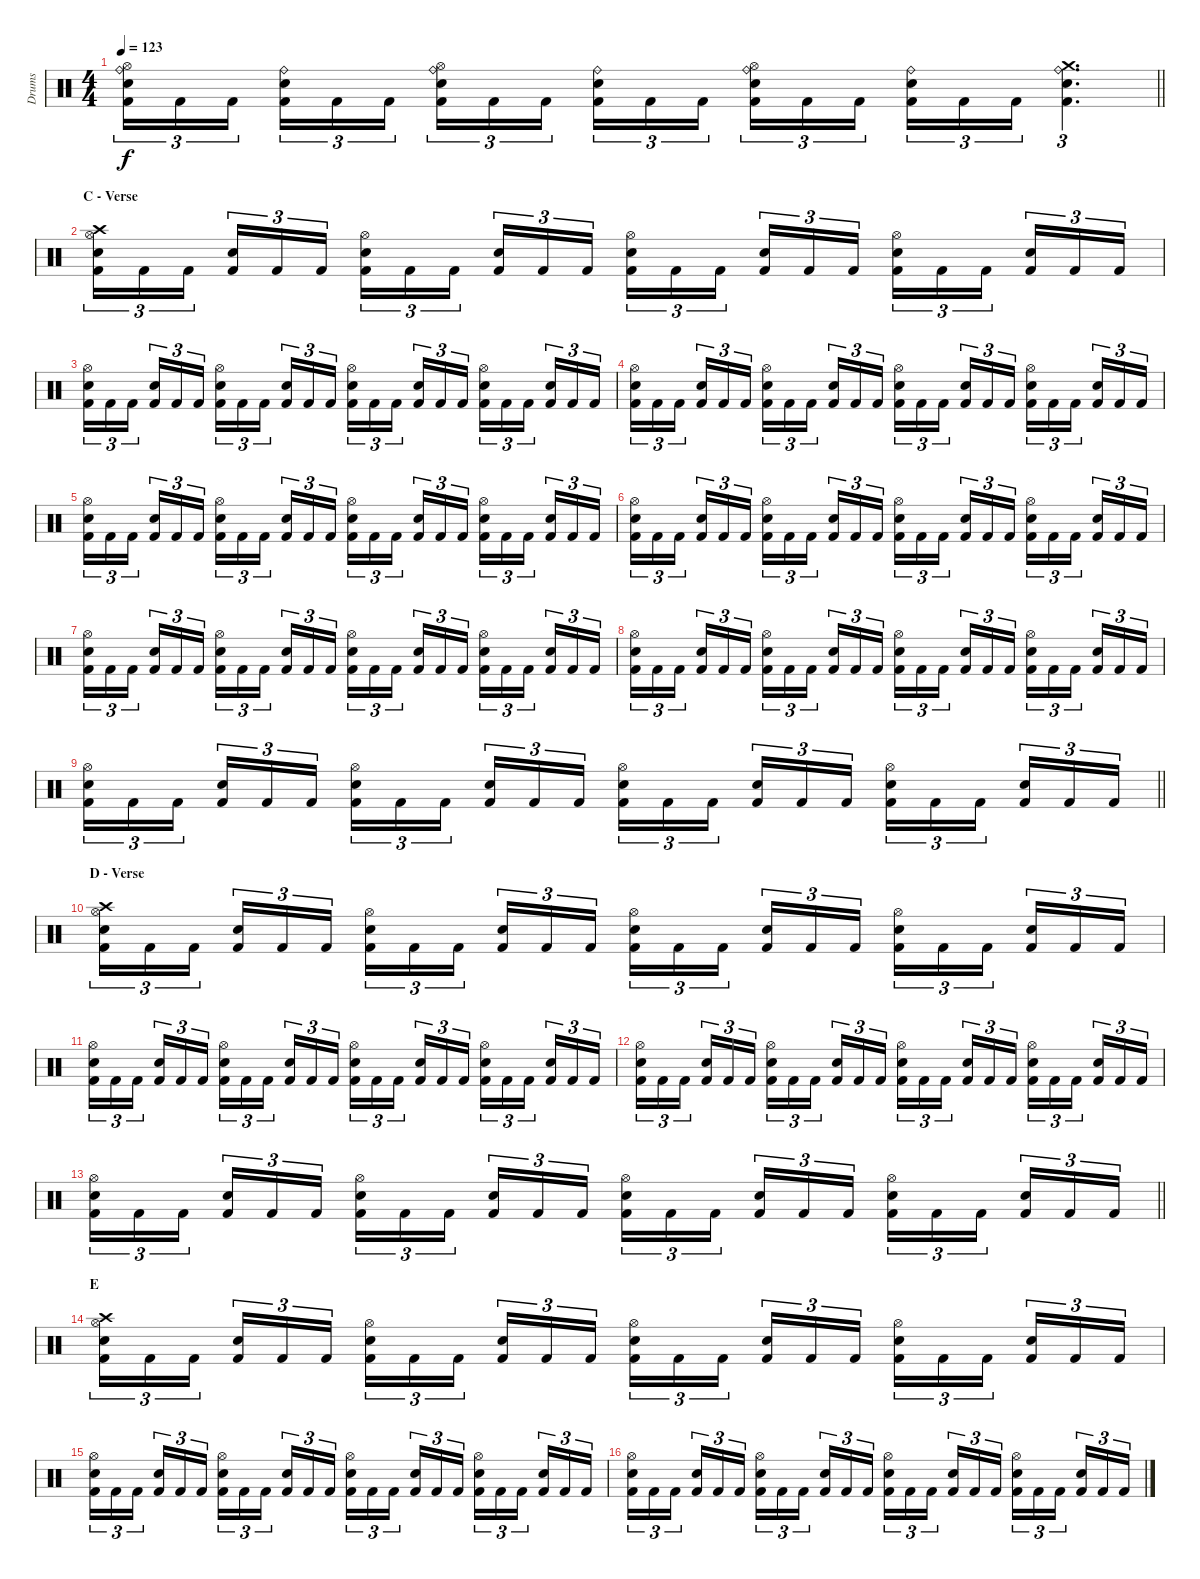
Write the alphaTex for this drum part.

\track ("Drums" "Drums") {instrument percussion}
\staff {score}
\articulation defaults
\ts (4 4)
\tempo 123
\clef neutral
\barLineRight lightlight
\ks c
("Hi-Hat (open)" "Ride (bell)" "Snare (hit) 2" "Kick (hit) 2").16{tu (3 2) dy f} "Kick (hit) 2".16{tu (3 2)} "Kick (hit) 2".16{tu (3 2) beam splitsecondary} ("Ride (bell)" "Snare (hit) 2" "Kick (hit) 2").16{tu (3 2)} "Kick (hit) 2".16{tu (3 2)} "Kick (hit) 2".16{tu (3 2)} ("Hi-Hat (open)" "Ride (bell)" "Snare (hit) 2" "Kick (hit) 2").16{tu (3 2)} "Kick (hit) 2".16{tu (3 2)} "Kick (hit) 2".16{tu (3 2) beam splitsecondary} ("Ride (bell)" "Snare (hit) 2" "Kick (hit) 2").16{tu (3 2)} "Kick (hit) 2".16{tu (3 2)} "Kick (hit) 2".16{tu (3 2)} ("Hi-Hat (open)" "Ride (bell)" "Snare (hit) 2" "Kick (hit) 2").16{tu (3 2)} "Kick (hit) 2".16{tu (3 2)} "Kick (hit) 2".16{tu (3 2) beam splitsecondary} ("Ride (bell)" "Snare (hit) 2" "Kick (hit) 2").16{tu (3 2)} "Kick (hit) 2".16{tu (3 2)} "Kick (hit) 2".16{tu (3 2)} ("Crash medium (hit)" "Ride (bell)" "Snare (hit) 2" "Kick (hit) 2").4{d tu (3 2)} |
\section ("" "C - Verse")
("Crash high (hit)" "Hi-Hat (open)" "Snare (hit) 2" "Kick (hit) 2").16{tu (3 2)} "Kick (hit) 2".16{tu (3 2)} "Kick (hit) 2".16{tu (3 2) beam splitsecondary} ("Snare (hit) 2" "Kick (hit) 2").16{tu (3 2)} "Kick (hit) 2".16{tu (3 2)} "Kick (hit) 2".16{tu (3 2)} ("Hi-Hat (open)" "Snare (hit) 2" "Kick (hit) 2").16{tu (3 2)} "Kick (hit) 2".16{tu (3 2)} "Kick (hit) 2".16{tu (3 2) beam splitsecondary} ("Snare (hit) 2" "Kick (hit) 2").16{tu (3 2)} "Kick (hit) 2".16{tu (3 2)} "Kick (hit) 2".16{tu (3 2)} ("Hi-Hat (open)" "Snare (hit) 2" "Kick (hit) 2").16{tu (3 2)} "Kick (hit) 2".16{tu (3 2)} "Kick (hit) 2".16{tu (3 2) beam splitsecondary} ("Snare (hit) 2" "Kick (hit) 2").16{tu (3 2)} "Kick (hit) 2".16{tu (3 2)} "Kick (hit) 2".16{tu (3 2)} ("Hi-Hat (open)" "Snare (hit) 2" "Kick (hit) 2").16{tu (3 2)} "Kick (hit) 2".16{tu (3 2)} "Kick (hit) 2".16{tu (3 2) beam splitsecondary} ("Snare (hit) 2" "Kick (hit) 2").16{tu (3 2)} "Kick (hit) 2".16{tu (3 2)} "Kick (hit) 2".16{tu (3 2)} |
("Hi-Hat (open)" "Snare (hit) 2" "Kick (hit) 2").16{tu (3 2)} "Kick (hit) 2".16{tu (3 2)} "Kick (hit) 2".16{tu (3 2) beam splitsecondary} ("Snare (hit) 2" "Kick (hit) 2").16{tu (3 2)} "Kick (hit) 2".16{tu (3 2)} "Kick (hit) 2".16{tu (3 2)} ("Hi-Hat (open)" "Snare (hit) 2" "Kick (hit) 2").16{tu (3 2)} "Kick (hit) 2".16{tu (3 2)} "Kick (hit) 2".16{tu (3 2) beam splitsecondary} ("Snare (hit) 2" "Kick (hit) 2").16{tu (3 2)} "Kick (hit) 2".16{tu (3 2)} "Kick (hit) 2".16{tu (3 2)} ("Hi-Hat (open)" "Snare (hit) 2" "Kick (hit) 2").16{tu (3 2)} "Kick (hit) 2".16{tu (3 2)} "Kick (hit) 2".16{tu (3 2) beam splitsecondary} ("Snare (hit) 2" "Kick (hit) 2").16{tu (3 2)} "Kick (hit) 2".16{tu (3 2)} "Kick (hit) 2".16{tu (3 2)} ("Hi-Hat (open)" "Snare (hit) 2" "Kick (hit) 2").16{tu (3 2)} "Kick (hit) 2".16{tu (3 2)} "Kick (hit) 2".16{tu (3 2) beam splitsecondary} ("Snare (hit) 2" "Kick (hit) 2").16{tu (3 2)} "Kick (hit) 2".16{tu (3 2)} "Kick (hit) 2".16{tu (3 2)} |
("Hi-Hat (open)" "Snare (hit) 2" "Kick (hit) 2").16{tu (3 2)} "Kick (hit) 2".16{tu (3 2)} "Kick (hit) 2".16{tu (3 2) beam splitsecondary} ("Snare (hit) 2" "Kick (hit) 2").16{tu (3 2)} "Kick (hit) 2".16{tu (3 2)} "Kick (hit) 2".16{tu (3 2)} ("Hi-Hat (open)" "Snare (hit) 2" "Kick (hit) 2").16{tu (3 2)} "Kick (hit) 2".16{tu (3 2)} "Kick (hit) 2".16{tu (3 2) beam splitsecondary} ("Snare (hit) 2" "Kick (hit) 2").16{tu (3 2)} "Kick (hit) 2".16{tu (3 2)} "Kick (hit) 2".16{tu (3 2)} ("Hi-Hat (open)" "Snare (hit) 2" "Kick (hit) 2").16{tu (3 2)} "Kick (hit) 2".16{tu (3 2)} "Kick (hit) 2".16{tu (3 2) beam splitsecondary} ("Snare (hit) 2" "Kick (hit) 2").16{tu (3 2)} "Kick (hit) 2".16{tu (3 2)} "Kick (hit) 2".16{tu (3 2)} ("Hi-Hat (open)" "Snare (hit) 2" "Kick (hit) 2").16{tu (3 2)} "Kick (hit) 2".16{tu (3 2)} "Kick (hit) 2".16{tu (3 2) beam splitsecondary} ("Snare (hit) 2" "Kick (hit) 2").16{tu (3 2)} "Kick (hit) 2".16{tu (3 2)} "Kick (hit) 2".16{tu (3 2)} |
("Hi-Hat (open)" "Snare (hit) 2" "Kick (hit) 2").16{tu (3 2)} "Kick (hit) 2".16{tu (3 2)} "Kick (hit) 2".16{tu (3 2) beam splitsecondary} ("Snare (hit) 2" "Kick (hit) 2").16{tu (3 2)} "Kick (hit) 2".16{tu (3 2)} "Kick (hit) 2".16{tu (3 2)} ("Hi-Hat (open)" "Snare (hit) 2" "Kick (hit) 2").16{tu (3 2)} "Kick (hit) 2".16{tu (3 2)} "Kick (hit) 2".16{tu (3 2) beam splitsecondary} ("Snare (hit) 2" "Kick (hit) 2").16{tu (3 2)} "Kick (hit) 2".16{tu (3 2)} "Kick (hit) 2".16{tu (3 2)} ("Hi-Hat (open)" "Snare (hit) 2" "Kick (hit) 2").16{tu (3 2)} "Kick (hit) 2".16{tu (3 2)} "Kick (hit) 2".16{tu (3 2) beam splitsecondary} ("Snare (hit) 2" "Kick (hit) 2").16{tu (3 2)} "Kick (hit) 2".16{tu (3 2)} "Kick (hit) 2".16{tu (3 2)} ("Hi-Hat (open)" "Snare (hit) 2" "Kick (hit) 2").16{tu (3 2)} "Kick (hit) 2".16{tu (3 2)} "Kick (hit) 2".16{tu (3 2) beam splitsecondary} ("Snare (hit) 2" "Kick (hit) 2").16{tu (3 2)} "Kick (hit) 2".16{tu (3 2)} "Kick (hit) 2".16{tu (3 2)} |
("Hi-Hat (open)" "Snare (hit) 2" "Kick (hit) 2").16{tu (3 2)} "Kick (hit) 2".16{tu (3 2)} "Kick (hit) 2".16{tu (3 2) beam splitsecondary} ("Snare (hit) 2" "Kick (hit) 2").16{tu (3 2)} "Kick (hit) 2".16{tu (3 2)} "Kick (hit) 2".16{tu (3 2)} ("Hi-Hat (open)" "Snare (hit) 2" "Kick (hit) 2").16{tu (3 2)} "Kick (hit) 2".16{tu (3 2)} "Kick (hit) 2".16{tu (3 2) beam splitsecondary} ("Snare (hit) 2" "Kick (hit) 2").16{tu (3 2)} "Kick (hit) 2".16{tu (3 2)} "Kick (hit) 2".16{tu (3 2)} ("Hi-Hat (open)" "Snare (hit) 2" "Kick (hit) 2").16{tu (3 2)} "Kick (hit) 2".16{tu (3 2)} "Kick (hit) 2".16{tu (3 2) beam splitsecondary} ("Snare (hit) 2" "Kick (hit) 2").16{tu (3 2)} "Kick (hit) 2".16{tu (3 2)} "Kick (hit) 2".16{tu (3 2)} ("Hi-Hat (open)" "Snare (hit) 2" "Kick (hit) 2").16{tu (3 2)} "Kick (hit) 2".16{tu (3 2)} "Kick (hit) 2".16{tu (3 2) beam splitsecondary} ("Snare (hit) 2" "Kick (hit) 2").16{tu (3 2)} "Kick (hit) 2".16{tu (3 2)} "Kick (hit) 2".16{tu (3 2)} |
("Hi-Hat (open)" "Snare (hit) 2" "Kick (hit) 2").16{tu (3 2)} "Kick (hit) 2".16{tu (3 2)} "Kick (hit) 2".16{tu (3 2) beam splitsecondary} ("Snare (hit) 2" "Kick (hit) 2").16{tu (3 2)} "Kick (hit) 2".16{tu (3 2)} "Kick (hit) 2".16{tu (3 2)} ("Hi-Hat (open)" "Snare (hit) 2" "Kick (hit) 2").16{tu (3 2)} "Kick (hit) 2".16{tu (3 2)} "Kick (hit) 2".16{tu (3 2) beam splitsecondary} ("Snare (hit) 2" "Kick (hit) 2").16{tu (3 2)} "Kick (hit) 2".16{tu (3 2)} "Kick (hit) 2".16{tu (3 2)} ("Hi-Hat (open)" "Snare (hit) 2" "Kick (hit) 2").16{tu (3 2)} "Kick (hit) 2".16{tu (3 2)} "Kick (hit) 2".16{tu (3 2) beam splitsecondary} ("Snare (hit) 2" "Kick (hit) 2").16{tu (3 2)} "Kick (hit) 2".16{tu (3 2)} "Kick (hit) 2".16{tu (3 2)} ("Hi-Hat (open)" "Snare (hit) 2" "Kick (hit) 2").16{tu (3 2)} "Kick (hit) 2".16{tu (3 2)} "Kick (hit) 2".16{tu (3 2) beam splitsecondary} ("Snare (hit) 2" "Kick (hit) 2").16{tu (3 2)} "Kick (hit) 2".16{tu (3 2)} "Kick (hit) 2".16{tu (3 2)} |
("Hi-Hat (open)" "Snare (hit) 2" "Kick (hit) 2").16{tu (3 2)} "Kick (hit) 2".16{tu (3 2)} "Kick (hit) 2".16{tu (3 2) beam splitsecondary} ("Snare (hit) 2" "Kick (hit) 2").16{tu (3 2)} "Kick (hit) 2".16{tu (3 2)} "Kick (hit) 2".16{tu (3 2)} ("Hi-Hat (open)" "Snare (hit) 2" "Kick (hit) 2").16{tu (3 2)} "Kick (hit) 2".16{tu (3 2)} "Kick (hit) 2".16{tu (3 2) beam splitsecondary} ("Snare (hit) 2" "Kick (hit) 2").16{tu (3 2)} "Kick (hit) 2".16{tu (3 2)} "Kick (hit) 2".16{tu (3 2)} ("Hi-Hat (open)" "Snare (hit) 2" "Kick (hit) 2").16{tu (3 2)} "Kick (hit) 2".16{tu (3 2)} "Kick (hit) 2".16{tu (3 2) beam splitsecondary} ("Snare (hit) 2" "Kick (hit) 2").16{tu (3 2)} "Kick (hit) 2".16{tu (3 2)} "Kick (hit) 2".16{tu (3 2)} ("Hi-Hat (open)" "Snare (hit) 2" "Kick (hit) 2").16{tu (3 2)} "Kick (hit) 2".16{tu (3 2)} "Kick (hit) 2".16{tu (3 2) beam splitsecondary} ("Snare (hit) 2" "Kick (hit) 2").16{tu (3 2)} "Kick (hit) 2".16{tu (3 2)} "Kick (hit) 2".16{tu (3 2)} |
\barLineRight lightlight
("Hi-Hat (open)" "Snare (hit) 2" "Kick (hit) 2").16{tu (3 2)} "Kick (hit) 2".16{tu (3 2)} "Kick (hit) 2".16{tu (3 2) beam splitsecondary} ("Snare (hit) 2" "Kick (hit) 2").16{tu (3 2)} "Kick (hit) 2".16{tu (3 2)} "Kick (hit) 2".16{tu (3 2)} ("Hi-Hat (open)" "Snare (hit) 2" "Kick (hit) 2").16{tu (3 2)} "Kick (hit) 2".16{tu (3 2)} "Kick (hit) 2".16{tu (3 2) beam splitsecondary} ("Snare (hit) 2" "Kick (hit) 2").16{tu (3 2)} "Kick (hit) 2".16{tu (3 2)} "Kick (hit) 2".16{tu (3 2)} ("Hi-Hat (open)" "Snare (hit) 2" "Kick (hit) 2").16{tu (3 2)} "Kick (hit) 2".16{tu (3 2)} "Kick (hit) 2".16{tu (3 2) beam splitsecondary} ("Snare (hit) 2" "Kick (hit) 2").16{tu (3 2)} "Kick (hit) 2".16{tu (3 2)} "Kick (hit) 2".16{tu (3 2)} ("Hi-Hat (open)" "Snare (hit) 2" "Kick (hit) 2").16{tu (3 2)} "Kick (hit) 2".16{tu (3 2)} "Kick (hit) 2".16{tu (3 2) beam splitsecondary} ("Snare (hit) 2" "Kick (hit) 2").16{tu (3 2)} "Kick (hit) 2".16{tu (3 2)} "Kick (hit) 2".16{tu (3 2)} |
\section ("" "D - Verse")
("Crash high (hit)" "Hi-Hat (open)" "Snare (hit) 2" "Kick (hit) 2").16{tu (3 2)} "Kick (hit) 2".16{tu (3 2)} "Kick (hit) 2".16{tu (3 2) beam splitsecondary} ("Snare (hit) 2" "Kick (hit) 2").16{tu (3 2)} "Kick (hit) 2".16{tu (3 2)} "Kick (hit) 2".16{tu (3 2)} ("Hi-Hat (open)" "Snare (hit) 2" "Kick (hit) 2").16{tu (3 2)} "Kick (hit) 2".16{tu (3 2)} "Kick (hit) 2".16{tu (3 2) beam splitsecondary} ("Snare (hit) 2" "Kick (hit) 2").16{tu (3 2)} "Kick (hit) 2".16{tu (3 2)} "Kick (hit) 2".16{tu (3 2)} ("Hi-Hat (open)" "Snare (hit) 2" "Kick (hit) 2").16{tu (3 2)} "Kick (hit) 2".16{tu (3 2)} "Kick (hit) 2".16{tu (3 2) beam splitsecondary} ("Snare (hit) 2" "Kick (hit) 2").16{tu (3 2)} "Kick (hit) 2".16{tu (3 2)} "Kick (hit) 2".16{tu (3 2)} ("Hi-Hat (open)" "Snare (hit) 2" "Kick (hit) 2").16{tu (3 2)} "Kick (hit) 2".16{tu (3 2)} "Kick (hit) 2".16{tu (3 2) beam splitsecondary} ("Snare (hit) 2" "Kick (hit) 2").16{tu (3 2)} "Kick (hit) 2".16{tu (3 2)} "Kick (hit) 2".16{tu (3 2)} |
("Hi-Hat (open)" "Snare (hit) 2" "Kick (hit) 2").16{tu (3 2)} "Kick (hit) 2".16{tu (3 2)} "Kick (hit) 2".16{tu (3 2) beam splitsecondary} ("Snare (hit) 2" "Kick (hit) 2").16{tu (3 2)} "Kick (hit) 2".16{tu (3 2)} "Kick (hit) 2".16{tu (3 2)} ("Hi-Hat (open)" "Snare (hit) 2" "Kick (hit) 2").16{tu (3 2)} "Kick (hit) 2".16{tu (3 2)} "Kick (hit) 2".16{tu (3 2) beam splitsecondary} ("Snare (hit) 2" "Kick (hit) 2").16{tu (3 2)} "Kick (hit) 2".16{tu (3 2)} "Kick (hit) 2".16{tu (3 2)} ("Hi-Hat (open)" "Snare (hit) 2" "Kick (hit) 2").16{tu (3 2)} "Kick (hit) 2".16{tu (3 2)} "Kick (hit) 2".16{tu (3 2) beam splitsecondary} ("Snare (hit) 2" "Kick (hit) 2").16{tu (3 2)} "Kick (hit) 2".16{tu (3 2)} "Kick (hit) 2".16{tu (3 2)} ("Hi-Hat (open)" "Snare (hit) 2" "Kick (hit) 2").16{tu (3 2)} "Kick (hit) 2".16{tu (3 2)} "Kick (hit) 2".16{tu (3 2) beam splitsecondary} ("Snare (hit) 2" "Kick (hit) 2").16{tu (3 2)} "Kick (hit) 2".16{tu (3 2)} "Kick (hit) 2".16{tu (3 2)} |
("Hi-Hat (open)" "Snare (hit) 2" "Kick (hit) 2").16{tu (3 2)} "Kick (hit) 2".16{tu (3 2)} "Kick (hit) 2".16{tu (3 2) beam splitsecondary} ("Snare (hit) 2" "Kick (hit) 2").16{tu (3 2)} "Kick (hit) 2".16{tu (3 2)} "Kick (hit) 2".16{tu (3 2)} ("Hi-Hat (open)" "Snare (hit) 2" "Kick (hit) 2").16{tu (3 2)} "Kick (hit) 2".16{tu (3 2)} "Kick (hit) 2".16{tu (3 2) beam splitsecondary} ("Snare (hit) 2" "Kick (hit) 2").16{tu (3 2)} "Kick (hit) 2".16{tu (3 2)} "Kick (hit) 2".16{tu (3 2)} ("Hi-Hat (open)" "Snare (hit) 2" "Kick (hit) 2").16{tu (3 2)} "Kick (hit) 2".16{tu (3 2)} "Kick (hit) 2".16{tu (3 2) beam splitsecondary} ("Snare (hit) 2" "Kick (hit) 2").16{tu (3 2)} "Kick (hit) 2".16{tu (3 2)} "Kick (hit) 2".16{tu (3 2)} ("Hi-Hat (open)" "Snare (hit) 2" "Kick (hit) 2").16{tu (3 2)} "Kick (hit) 2".16{tu (3 2)} "Kick (hit) 2".16{tu (3 2) beam splitsecondary} ("Snare (hit) 2" "Kick (hit) 2").16{tu (3 2)} "Kick (hit) 2".16{tu (3 2)} "Kick (hit) 2".16{tu (3 2)} |
\barLineRight lightlight
("Hi-Hat (open)" "Snare (hit) 2" "Kick (hit) 2").16{tu (3 2)} "Kick (hit) 2".16{tu (3 2)} "Kick (hit) 2".16{tu (3 2) beam splitsecondary} ("Snare (hit) 2" "Kick (hit) 2").16{tu (3 2)} "Kick (hit) 2".16{tu (3 2)} "Kick (hit) 2".16{tu (3 2)} ("Hi-Hat (open)" "Snare (hit) 2" "Kick (hit) 2").16{tu (3 2)} "Kick (hit) 2".16{tu (3 2)} "Kick (hit) 2".16{tu (3 2) beam splitsecondary} ("Snare (hit) 2" "Kick (hit) 2").16{tu (3 2)} "Kick (hit) 2".16{tu (3 2)} "Kick (hit) 2".16{tu (3 2)} ("Hi-Hat (open)" "Snare (hit) 2" "Kick (hit) 2").16{tu (3 2)} "Kick (hit) 2".16{tu (3 2)} "Kick (hit) 2".16{tu (3 2) beam splitsecondary} ("Snare (hit) 2" "Kick (hit) 2").16{tu (3 2)} "Kick (hit) 2".16{tu (3 2)} "Kick (hit) 2".16{tu (3 2)} ("Hi-Hat (open)" "Snare (hit) 2" "Kick (hit) 2").16{tu (3 2)} "Kick (hit) 2".16{tu (3 2)} "Kick (hit) 2".16{tu (3 2) beam splitsecondary} ("Snare (hit) 2" "Kick (hit) 2").16{tu (3 2)} "Kick (hit) 2".16{tu (3 2)} "Kick (hit) 2".16{tu (3 2)} |
\section ("" "E")
("Crash high (hit)" "Hi-Hat (open)" "Snare (hit) 2" "Kick (hit) 2").16{tu (3 2)} "Kick (hit) 2".16{tu (3 2)} "Kick (hit) 2".16{tu (3 2) beam splitsecondary} ("Snare (hit) 2" "Kick (hit) 2").16{tu (3 2)} "Kick (hit) 2".16{tu (3 2)} "Kick (hit) 2".16{tu (3 2)} ("Hi-Hat (open)" "Snare (hit) 2" "Kick (hit) 2").16{tu (3 2)} "Kick (hit) 2".16{tu (3 2)} "Kick (hit) 2".16{tu (3 2) beam splitsecondary} ("Snare (hit) 2" "Kick (hit) 2").16{tu (3 2)} "Kick (hit) 2".16{tu (3 2)} "Kick (hit) 2".16{tu (3 2)} ("Hi-Hat (open)" "Snare (hit) 2" "Kick (hit) 2").16{tu (3 2)} "Kick (hit) 2".16{tu (3 2)} "Kick (hit) 2".16{tu (3 2) beam splitsecondary} ("Snare (hit) 2" "Kick (hit) 2").16{tu (3 2)} "Kick (hit) 2".16{tu (3 2)} "Kick (hit) 2".16{tu (3 2)} ("Hi-Hat (open)" "Snare (hit) 2" "Kick (hit) 2").16{tu (3 2)} "Kick (hit) 2".16{tu (3 2)} "Kick (hit) 2".16{tu (3 2) beam splitsecondary} ("Snare (hit) 2" "Kick (hit) 2").16{tu (3 2)} "Kick (hit) 2".16{tu (3 2)} "Kick (hit) 2".16{tu (3 2)} |
("Hi-Hat (open)" "Snare (hit) 2" "Kick (hit) 2").16{tu (3 2)} "Kick (hit) 2".16{tu (3 2)} "Kick (hit) 2".16{tu (3 2) beam splitsecondary} ("Snare (hit) 2" "Kick (hit) 2").16{tu (3 2)} "Kick (hit) 2".16{tu (3 2)} "Kick (hit) 2".16{tu (3 2)} ("Hi-Hat (open)" "Snare (hit) 2" "Kick (hit) 2").16{tu (3 2)} "Kick (hit) 2".16{tu (3 2)} "Kick (hit) 2".16{tu (3 2) beam splitsecondary} ("Snare (hit) 2" "Kick (hit) 2").16{tu (3 2)} "Kick (hit) 2".16{tu (3 2)} "Kick (hit) 2".16{tu (3 2)} ("Hi-Hat (open)" "Snare (hit) 2" "Kick (hit) 2").16{tu (3 2)} "Kick (hit) 2".16{tu (3 2)} "Kick (hit) 2".16{tu (3 2) beam splitsecondary} ("Snare (hit) 2" "Kick (hit) 2").16{tu (3 2)} "Kick (hit) 2".16{tu (3 2)} "Kick (hit) 2".16{tu (3 2)} ("Hi-Hat (open)" "Snare (hit) 2" "Kick (hit) 2").16{tu (3 2)} "Kick (hit) 2".16{tu (3 2)} "Kick (hit) 2".16{tu (3 2) beam splitsecondary} ("Snare (hit) 2" "Kick (hit) 2").16{tu (3 2)} "Kick (hit) 2".16{tu (3 2)} "Kick (hit) 2".16{tu (3 2)} |
("Hi-Hat (open)" "Snare (hit) 2" "Kick (hit) 2").16{tu (3 2)} "Kick (hit) 2".16{tu (3 2)} "Kick (hit) 2".16{tu (3 2) beam splitsecondary} ("Snare (hit) 2" "Kick (hit) 2").16{tu (3 2)} "Kick (hit) 2".16{tu (3 2)} "Kick (hit) 2".16{tu (3 2)} ("Hi-Hat (open)" "Snare (hit) 2" "Kick (hit) 2").16{tu (3 2)} "Kick (hit) 2".16{tu (3 2)} "Kick (hit) 2".16{tu (3 2) beam splitsecondary} ("Snare (hit) 2" "Kick (hit) 2").16{tu (3 2)} "Kick (hit) 2".16{tu (3 2)} "Kick (hit) 2".16{tu (3 2)} ("Hi-Hat (open)" "Snare (hit) 2" "Kick (hit) 2").16{tu (3 2)} "Kick (hit) 2".16{tu (3 2)} "Kick (hit) 2".16{tu (3 2) beam splitsecondary} ("Snare (hit) 2" "Kick (hit) 2").16{tu (3 2)} "Kick (hit) 2".16{tu (3 2)} "Kick (hit) 2".16{tu (3 2)} ("Hi-Hat (open)" "Snare (hit) 2" "Kick (hit) 2").16{tu (3 2)} "Kick (hit) 2".16{tu (3 2)} "Kick (hit) 2".16{tu (3 2) beam splitsecondary} ("Snare (hit) 2" "Kick (hit) 2").16{tu (3 2)} "Kick (hit) 2".16{tu (3 2)} "Kick (hit) 2".16{tu (3 2)}
